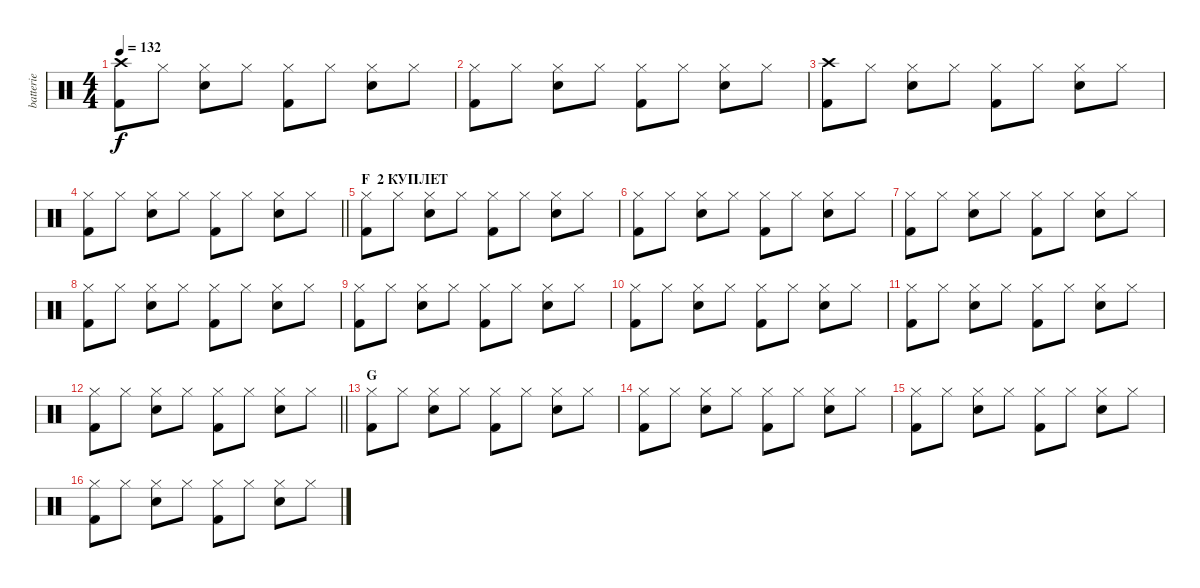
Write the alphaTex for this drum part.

\track ("batterie" "batterie") {instrument percussion}
\staff {score}
\articulation defaults
\ts (4 4)
\tempo 132
\clef neutral
\ks c
("Crash high (hit)" "Kick (hit) 2").8{dy f} "Hi-Hat (closed)".8 ("Hi-Hat (closed)" "Electric Snare (hit)").8 "Hi-Hat (closed)".8 ("Hi-Hat (closed)" "Kick (hit) 2").8 "Hi-Hat (closed)".8 ("Hi-Hat (closed)" "Electric Snare (hit)").8 "Hi-Hat (closed)".8 |
("Hi-Hat (closed)" "Kick (hit) 2").8 "Hi-Hat (closed)".8 ("Hi-Hat (closed)" "Electric Snare (hit)").8 "Hi-Hat (closed)".8 ("Hi-Hat (closed)" "Kick (hit) 2").8 "Hi-Hat (closed)".8 ("Hi-Hat (closed)" "Electric Snare (hit)").8 "Hi-Hat (closed)".8 |
("Crash high (hit)" "Kick (hit) 2").8 "Hi-Hat (closed)".8 ("Hi-Hat (closed)" "Electric Snare (hit)").8 "Hi-Hat (closed)".8 ("Hi-Hat (closed)" "Kick (hit) 2").8 "Hi-Hat (closed)".8 ("Hi-Hat (closed)" "Electric Snare (hit)").8 "Hi-Hat (closed)".8 |
\barLineRight lightlight
("Hi-Hat (closed)" "Kick (hit) 2").8 "Hi-Hat (closed)".8 ("Hi-Hat (closed)" "Electric Snare (hit)").8 "Hi-Hat (closed)".8 ("Hi-Hat (closed)" "Kick (hit) 2").8 "Hi-Hat (closed)".8 ("Hi-Hat (closed)" "Electric Snare (hit)").8 "Hi-Hat (closed)".8 |
\section ("" "F  2 КУПЛЕТ")
("Hi-Hat (closed)" "Kick (hit) 2").8 "Hi-Hat (closed)".8 ("Hi-Hat (closed)" "Electric Snare (hit)").8 "Hi-Hat (closed)".8 ("Hi-Hat (closed)" "Kick (hit) 2").8 "Hi-Hat (closed)".8 ("Hi-Hat (closed)" "Electric Snare (hit)").8 "Hi-Hat (closed)".8 |
("Hi-Hat (closed)" "Kick (hit) 2").8 "Hi-Hat (closed)".8 ("Hi-Hat (closed)" "Electric Snare (hit)").8 "Hi-Hat (closed)".8 ("Hi-Hat (closed)" "Kick (hit) 2").8 "Hi-Hat (closed)".8 ("Hi-Hat (closed)" "Electric Snare (hit)").8 "Hi-Hat (closed)".8 |
("Hi-Hat (closed)" "Kick (hit) 2").8 "Hi-Hat (closed)".8 ("Hi-Hat (closed)" "Electric Snare (hit)").8 "Hi-Hat (closed)".8 ("Hi-Hat (closed)" "Kick (hit) 2").8 "Hi-Hat (closed)".8 ("Hi-Hat (closed)" "Electric Snare (hit)").8 "Hi-Hat (closed)".8 |
("Hi-Hat (closed)" "Kick (hit) 2").8 "Hi-Hat (closed)".8 ("Hi-Hat (closed)" "Electric Snare (hit)").8 "Hi-Hat (closed)".8 ("Hi-Hat (closed)" "Kick (hit) 2").8 "Hi-Hat (closed)".8 ("Hi-Hat (closed)" "Electric Snare (hit)").8 "Hi-Hat (closed)".8 |
("Hi-Hat (closed)" "Kick (hit) 2").8 "Hi-Hat (closed)".8 ("Hi-Hat (closed)" "Electric Snare (hit)").8 "Hi-Hat (closed)".8 ("Hi-Hat (closed)" "Kick (hit) 2").8 "Hi-Hat (closed)".8 ("Hi-Hat (closed)" "Electric Snare (hit)").8 "Hi-Hat (closed)".8 |
("Hi-Hat (closed)" "Kick (hit) 2").8 "Hi-Hat (closed)".8 ("Hi-Hat (closed)" "Electric Snare (hit)").8 "Hi-Hat (closed)".8 ("Hi-Hat (closed)" "Kick (hit) 2").8 "Hi-Hat (closed)".8 ("Hi-Hat (closed)" "Electric Snare (hit)").8 "Hi-Hat (closed)".8 |
("Hi-Hat (closed)" "Kick (hit) 2").8 "Hi-Hat (closed)".8 ("Hi-Hat (closed)" "Electric Snare (hit)").8 "Hi-Hat (closed)".8 ("Hi-Hat (closed)" "Kick (hit) 2").8 "Hi-Hat (closed)".8 ("Hi-Hat (closed)" "Electric Snare (hit)").8 "Hi-Hat (closed)".8 |
\barLineRight lightlight
("Hi-Hat (closed)" "Kick (hit) 2").8 "Hi-Hat (closed)".8 ("Hi-Hat (closed)" "Electric Snare (hit)").8 "Hi-Hat (closed)".8 ("Hi-Hat (closed)" "Kick (hit) 2").8 "Hi-Hat (closed)".8 ("Hi-Hat (closed)" "Electric Snare (hit)").8 "Hi-Hat (closed)".8 |
\section ("" "G")
("Hi-Hat (closed)" "Kick (hit) 2").8 "Hi-Hat (closed)".8 ("Hi-Hat (closed)" "Electric Snare (hit)").8 "Hi-Hat (closed)".8 ("Hi-Hat (closed)" "Kick (hit) 2").8 "Hi-Hat (closed)".8 ("Hi-Hat (closed)" "Electric Snare (hit)").8 "Hi-Hat (closed)".8 |
("Hi-Hat (closed)" "Kick (hit) 2").8 "Hi-Hat (closed)".8 ("Hi-Hat (closed)" "Electric Snare (hit)").8 "Hi-Hat (closed)".8 ("Hi-Hat (closed)" "Kick (hit) 2").8 "Hi-Hat (closed)".8 ("Hi-Hat (closed)" "Electric Snare (hit)").8 "Hi-Hat (closed)".8 |
("Hi-Hat (closed)" "Kick (hit) 2").8 "Hi-Hat (closed)".8 ("Hi-Hat (closed)" "Electric Snare (hit)").8 "Hi-Hat (closed)".8 ("Hi-Hat (closed)" "Kick (hit) 2").8 "Hi-Hat (closed)".8 ("Hi-Hat (closed)" "Electric Snare (hit)").8 "Hi-Hat (closed)".8 |
("Hi-Hat (closed)" "Kick (hit) 2").8 "Hi-Hat (closed)".8 ("Hi-Hat (closed)" "Electric Snare (hit)").8 "Hi-Hat (closed)".8 ("Hi-Hat (closed)" "Kick (hit) 2").8 "Hi-Hat (closed)".8 ("Hi-Hat (closed)" "Electric Snare (hit)").8 "Hi-Hat (closed)".8
